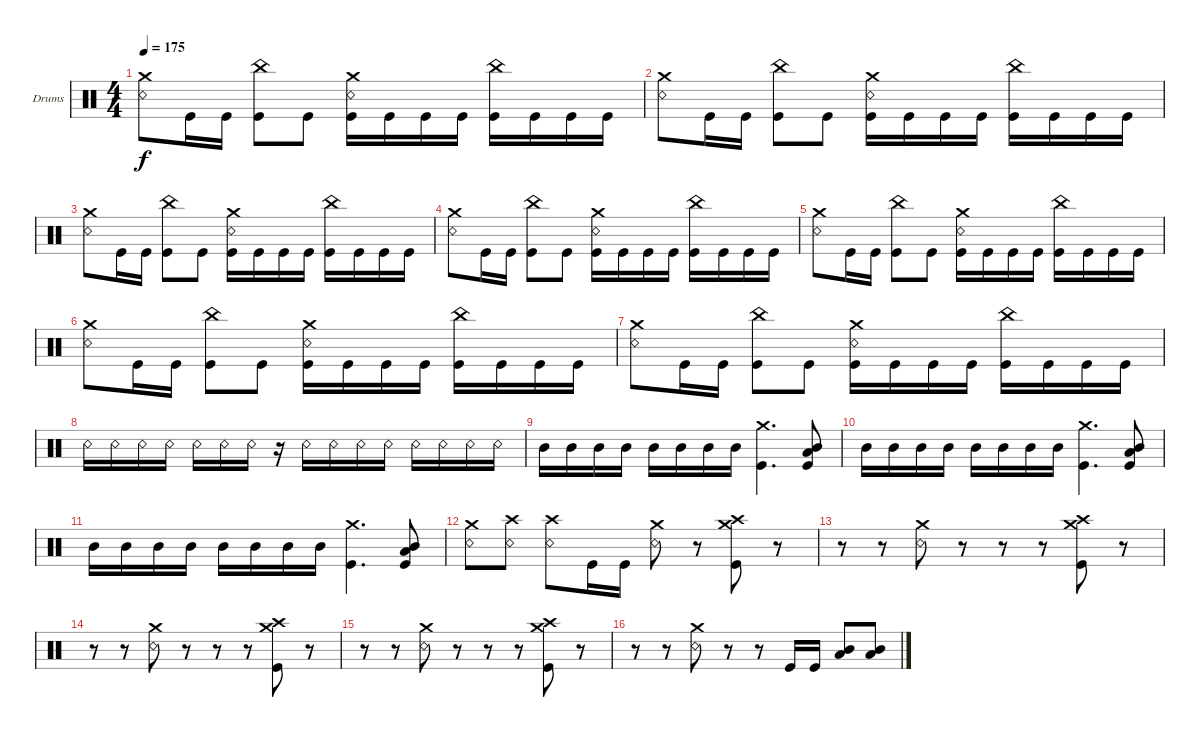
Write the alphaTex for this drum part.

\bracketExtendMode groupsimilarinstruments
\firstSystemTrackNameOrientation horizontal
\otherSystemsTrackNameOrientation horizontal
\track ("Drumkit" "Drums") {instrument percussion}
\staff {score}
\articulation defaults
\ts (4 4)
\tempo 175
\clef neutral
\ks c
("Crash medium (hit)" "Snare (rim shot)").8{dy f} "Kick (hit)".16 "Kick (hit)".16 ("China (hit)" "Kick (hit)").8 "Kick (hit)".8 ("Crash medium (hit)" "Snare (rim shot)" "Kick (hit)").16 "Kick (hit)".16 "Kick (hit)".16 "Kick (hit)".16 ("China (hit)" "Kick (hit)").16 "Kick (hit)".16 "Kick (hit)".16 "Kick (hit)".16 |
("Crash medium (hit)" "Snare (rim shot)").8 "Kick (hit)".16 "Kick (hit)".16 ("China (hit)" "Kick (hit)").8 "Kick (hit)".8 ("Crash medium (hit)" "Snare (rim shot)" "Kick (hit)").16 "Kick (hit)".16 "Kick (hit)".16 "Kick (hit)".16 ("China (hit)" "Kick (hit)").16 "Kick (hit)".16 "Kick (hit)".16 "Kick (hit)".16 |
("Crash medium (hit)" "Snare (rim shot)").8 "Kick (hit)".16 "Kick (hit)".16 ("China (hit)" "Kick (hit)").8 "Kick (hit)".8 ("Crash medium (hit)" "Snare (rim shot)" "Kick (hit)").16 "Kick (hit)".16 "Kick (hit)".16 "Kick (hit)".16 ("China (hit)" "Kick (hit)").16 "Kick (hit)".16 "Kick (hit)".16 "Kick (hit)".16 |
("Crash medium (hit)" "Snare (rim shot)").8 "Kick (hit)".16 "Kick (hit)".16 ("China (hit)" "Kick (hit)").8 "Kick (hit)".8 ("Crash medium (hit)" "Snare (rim shot)" "Kick (hit)").16 "Kick (hit)".16 "Kick (hit)".16 "Kick (hit)".16 ("China (hit)" "Kick (hit)").16 "Kick (hit)".16 "Kick (hit)".16 "Kick (hit)".16 |
("Crash medium (hit)" "Snare (rim shot)").8 "Kick (hit)".16 "Kick (hit)".16 ("China (hit)" "Kick (hit)").8 "Kick (hit)".8 ("Crash medium (hit)" "Snare (rim shot)" "Kick (hit)").16 "Kick (hit)".16 "Kick (hit)".16 "Kick (hit)".16 ("China (hit)" "Kick (hit)").16 "Kick (hit)".16 "Kick (hit)".16 "Kick (hit)".16 |
("Crash medium (hit)" "Snare (rim shot)").8 "Kick (hit)".16 "Kick (hit)".16 ("China (hit)" "Kick (hit)").8 "Kick (hit)".8 ("Crash medium (hit)" "Snare (rim shot)" "Kick (hit)").16 "Kick (hit)".16 "Kick (hit)".16 "Kick (hit)".16 ("China (hit)" "Kick (hit)").16 "Kick (hit)".16 "Kick (hit)".16 "Kick (hit)".16 |
("Crash medium (hit)" "Snare (rim shot)").8 "Kick (hit)".16 "Kick (hit)".16 ("China (hit)" "Kick (hit)").8 "Kick (hit)".8 ("Crash medium (hit)" "Snare (rim shot)" "Kick (hit)").16 "Kick (hit)".16 "Kick (hit)".16 "Kick (hit)".16 ("China (hit)" "Kick (hit)").16 "Kick (hit)".16 "Kick (hit)".16 "Kick (hit)".16 |
"Snare (rim shot)".16 "Snare (rim shot)".16 "Snare (rim shot)".16 "Snare (rim shot)".16 "Snare (rim shot)".16 "Snare (rim shot)".16 "Snare (rim shot)".16 r.16 "Snare (rim shot)".16 "Snare (rim shot)".16 "Snare (rim shot)".16 "Snare (rim shot)".16 "Snare (rim shot)".16 "Snare (rim shot)".16 "Snare (rim shot)".16 "Snare (rim shot)".16 |
"Mid Tom (hit)".16 "Mid Tom (hit)".16 "Mid Tom (hit)".16 "Mid Tom (hit)".16 "Mid Tom (hit)".16 "Mid Tom (hit)".16 "Mid Tom (hit)".16 "Mid Tom (hit)".16 ("Crash medium (hit)" "Kick (hit)").4{d} ("Mid Tom (hit)" "Low Tom (hit)" "Kick (hit)").8 |
"Mid Tom (hit)".16 "Mid Tom (hit)".16 "Mid Tom (hit)".16 "Mid Tom (hit)".16 "Mid Tom (hit)".16 "Mid Tom (hit)".16 "Mid Tom (hit)".16 "Mid Tom (hit)".16 ("Crash medium (hit)" "Kick (hit)").4{d} ("Mid Tom (hit)" "Low Tom (hit)" "Kick (hit)").8 |
"Mid Tom (hit)".16 "Mid Tom (hit)".16 "Mid Tom (hit)".16 "Mid Tom (hit)".16 "Mid Tom (hit)".16 "Mid Tom (hit)".16 "Mid Tom (hit)".16 "Mid Tom (hit)".16 ("Crash medium (hit)" "Kick (hit)").4{d} ("Mid Tom (hit)" "Low Tom (hit)" "Kick (hit)").8 |
("Crash medium (hit)" "Snare (rim shot)").8 ("Crash high (hit)" "Snare (rim shot)").8 ("Crash high (hit)" "Snare (rim shot)").8 "Kick (hit)".16 "Kick (hit)".16 ("Crash medium (hit)" "Snare (rim shot)").8 r.8 ("Crash high (hit)" "Crash medium (hit)" "Kick (hit)").8 r.8 |
r.8 r.8 ("Crash medium (hit)" "Snare (rim shot)").8 r.8 r.8 r.8 ("Crash high (hit)" "Crash medium (hit)" "Kick (hit)").8 r.8 |
r.8 r.8 ("Crash medium (hit)" "Snare (rim shot)").8 r.8 r.8 r.8 ("Crash high (hit)" "Crash medium (hit)" "Kick (hit)").8 r.8 |
r.8 r.8 ("Crash medium (hit)" "Snare (rim shot)").8 r.8 r.8 r.8 ("Crash high (hit)" "Crash medium (hit)" "Kick (hit)").8 r.8 |
r.8 r.8 ("Crash medium (hit)" "Snare (rim shot)").8 r.8 r.8 "Kick (hit)".16 "Kick (hit)".16 ("Mid Tom (hit)" "Low Tom (hit)").8 ("Mid Tom (hit)" "Low Tom (hit)").8
